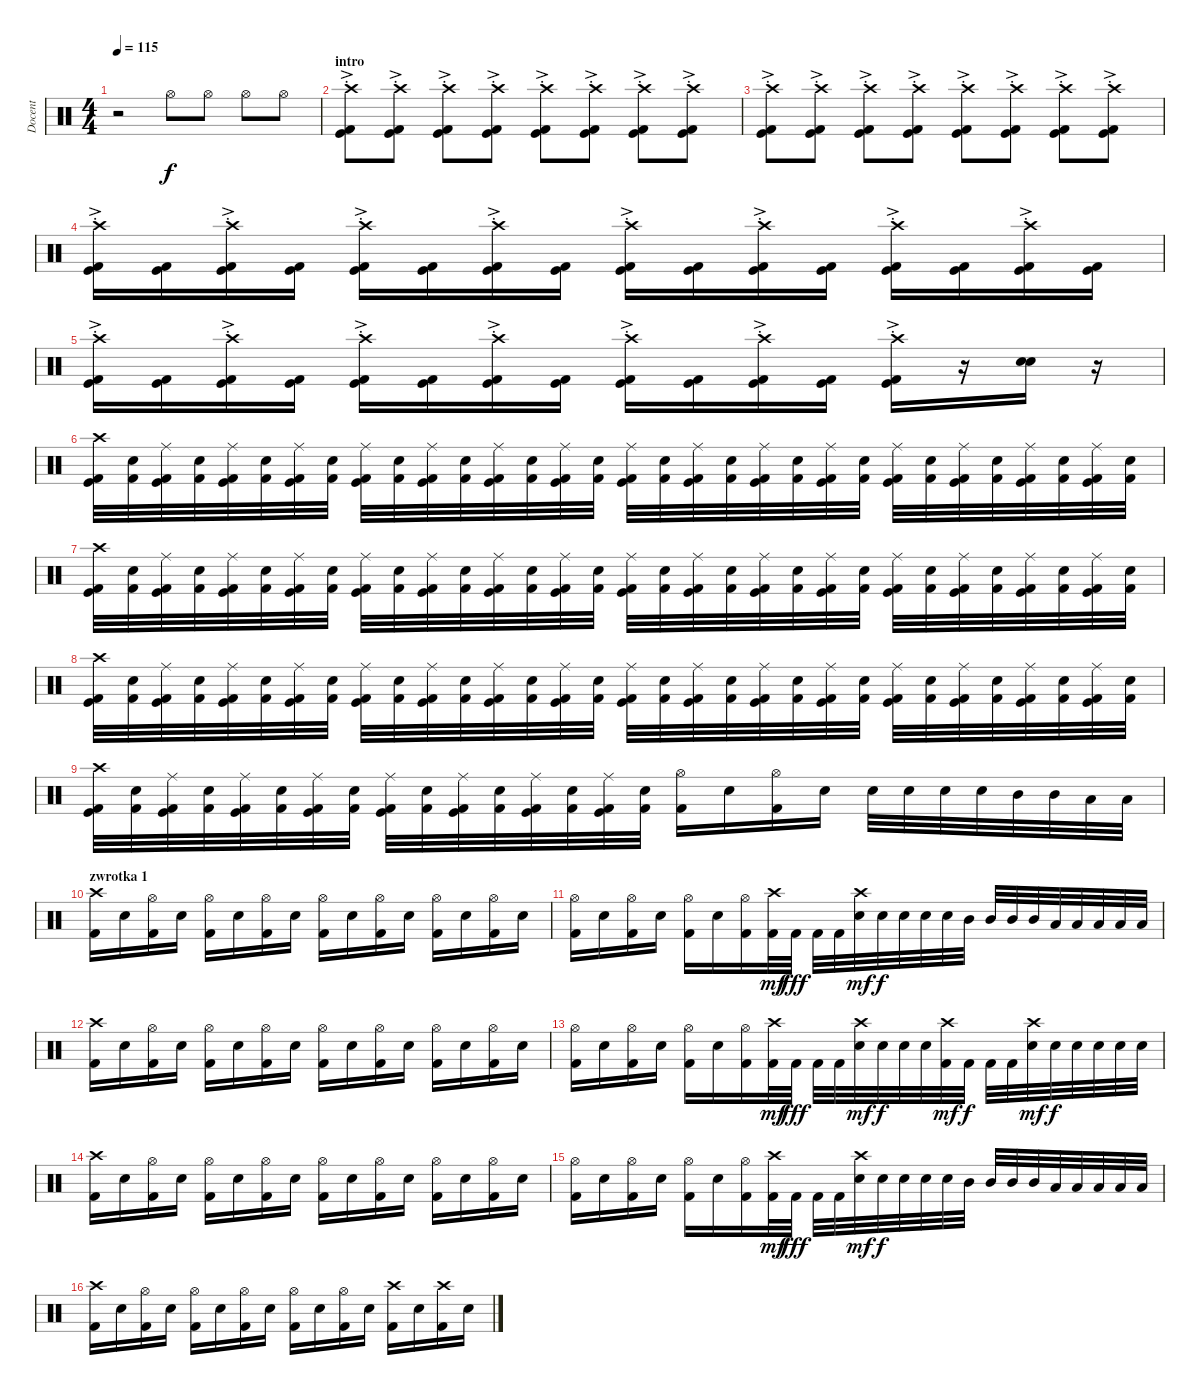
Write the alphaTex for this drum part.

\track ("Docent" "Docent") {instrument percussion}
\staff {score}
\articulation defaults
\ts (4 4)
\tempo 115
\clef neutral
\ks c
r.2{dy f} "Hi-Hat (open)".8 "Hi-Hat (open)".8 "Hi-Hat (open)".8 "Hi-Hat (open)".8 |
\section ("" "intro")
("Kick (hit) 2" "Kick (hit)" "Crash high (hit)"{ac st}).8 ("Kick (hit) 2" "Kick (hit)" "Crash high (hit)"{ac st}).8 ("Kick (hit) 2" "Kick (hit)" "Crash high (hit)"{ac st}).8 ("Kick (hit) 2" "Kick (hit)" "Crash high (hit)"{ac st}).8 ("Kick (hit) 2" "Kick (hit)" "Crash high (hit)"{ac st}).8 ("Kick (hit) 2" "Kick (hit)" "Crash high (hit)"{ac st}).8 ("Kick (hit) 2" "Kick (hit)" "Crash high (hit)"{ac st}).8 ("Kick (hit) 2" "Kick (hit)" "Crash high (hit)"{ac st}).8 |
("Kick (hit) 2" "Kick (hit)" "Crash high (hit)"{ac st}).8 ("Kick (hit) 2" "Kick (hit)" "Crash high (hit)"{ac st}).8 ("Kick (hit) 2" "Kick (hit)" "Crash high (hit)"{ac st}).8 ("Kick (hit) 2" "Kick (hit)" "Crash high (hit)"{ac st}).8 ("Kick (hit) 2" "Kick (hit)" "Crash high (hit)"{ac st}).8 ("Kick (hit) 2" "Kick (hit)" "Crash high (hit)"{ac st}).8 ("Kick (hit) 2" "Kick (hit)" "Crash high (hit)"{ac st}).8 ("Kick (hit) 2" "Kick (hit)" "Crash high (hit)"{ac st}).8 |
("Kick (hit) 2" "Kick (hit)" "Crash high (hit)"{ac st}).16 ("Kick (hit) 2" "Kick (hit)").16 ("Kick (hit) 2" "Kick (hit)" "Crash high (hit)"{ac st}).16 ("Kick (hit) 2" "Kick (hit)").16 ("Kick (hit) 2" "Kick (hit)" "Crash high (hit)"{ac st}).16 ("Kick (hit) 2" "Kick (hit)").16 ("Kick (hit) 2" "Kick (hit)" "Crash high (hit)"{ac st}).16 ("Kick (hit) 2" "Kick (hit)").16 ("Kick (hit) 2" "Kick (hit)" "Crash high (hit)"{ac st}).16 ("Kick (hit) 2" "Kick (hit)").16 ("Kick (hit) 2" "Kick (hit)" "Crash high (hit)"{ac st}).16 ("Kick (hit) 2" "Kick (hit)").16 ("Kick (hit) 2" "Kick (hit)" "Crash high (hit)"{ac st}).16 ("Kick (hit) 2" "Kick (hit)").16 ("Kick (hit) 2" "Kick (hit)" "Crash high (hit)"{ac st}).16 ("Kick (hit) 2" "Kick (hit)").16 |
("Kick (hit) 2" "Kick (hit)" "Crash high (hit)"{ac st}).16 ("Kick (hit) 2" "Kick (hit)").16 ("Kick (hit) 2" "Kick (hit)" "Crash high (hit)"{ac st}).16 ("Kick (hit) 2" "Kick (hit)").16 ("Kick (hit) 2" "Kick (hit)" "Crash high (hit)"{ac st}).16 ("Kick (hit) 2" "Kick (hit)").16 ("Kick (hit) 2" "Kick (hit)" "Crash high (hit)"{ac st}).16 ("Kick (hit) 2" "Kick (hit)").16 ("Kick (hit) 2" "Kick (hit)" "Crash high (hit)"{ac st}).16 ("Kick (hit) 2" "Kick (hit)").16 ("Kick (hit) 2" "Kick (hit)" "Crash high (hit)"{ac st}).16 ("Kick (hit) 2" "Kick (hit)").16 ("Kick (hit) 2" "Kick (hit)" "Crash high (hit)"{ac st}).16 r.16 ("Snare (hit) 2" "Snare (hit) 2").16 r.16 |
("Crash high (hit)" "Kick (hit)" "Kick (hit) 2").32 ("Snare (hit) 2" "Kick (hit) 2").32 ("Ride (middle)" "Kick (hit)" "Kick (hit) 2").32 ("Snare (hit) 2" "Kick (hit) 2").32 ("Ride (middle)" "Kick (hit)" "Kick (hit) 2").32 ("Snare (hit) 2" "Kick (hit) 2").32 ("Ride (middle)" "Kick (hit)" "Kick (hit) 2").32 ("Snare (hit) 2" "Kick (hit) 2").32 ("Ride (middle)" "Kick (hit)" "Kick (hit) 2").32 ("Snare (hit) 2" "Kick (hit) 2").32 ("Ride (middle)" "Kick (hit)" "Kick (hit) 2").32 ("Snare (hit) 2" "Kick (hit) 2").32 ("Ride (middle)" "Kick (hit)" "Kick (hit) 2").32 ("Snare (hit) 2" "Kick (hit) 2").32 ("Ride (middle)" "Kick (hit)" "Kick (hit) 2").32 ("Snare (hit) 2" "Kick (hit) 2").32 ("Ride (middle)" "Kick (hit)" "Kick (hit) 2").32 ("Snare (hit) 2" "Kick (hit) 2").32 ("Ride (middle)" "Kick (hit)" "Kick (hit) 2").32 ("Snare (hit) 2" "Kick (hit) 2").32 ("Ride (middle)" "Kick (hit)" "Kick (hit) 2").32 ("Snare (hit) 2" "Kick (hit) 2").32 ("Ride (middle)" "Kick (hit)" "Kick (hit) 2").32 ("Snare (hit) 2" "Kick (hit) 2").32 ("Ride (middle)" "Kick (hit)" "Kick (hit) 2").32 ("Snare (hit) 2" "Kick (hit) 2").32 ("Ride (middle)" "Kick (hit)" "Kick (hit) 2").32 ("Snare (hit) 2" "Kick (hit) 2").32 ("Ride (middle)" "Kick (hit)" "Kick (hit) 2").32 ("Snare (hit) 2" "Kick (hit) 2").32 ("Ride (middle)" "Kick (hit)" "Kick (hit) 2").32 ("Snare (hit) 2" "Kick (hit) 2").32 |
("Crash high (hit)" "Kick (hit)" "Kick (hit) 2").32 ("Snare (hit) 2" "Kick (hit) 2").32 ("Ride (middle)" "Kick (hit)" "Kick (hit) 2").32 ("Snare (hit) 2" "Kick (hit) 2").32 ("Ride (middle)" "Kick (hit)" "Kick (hit) 2").32 ("Snare (hit) 2" "Kick (hit) 2").32 ("Ride (middle)" "Kick (hit)" "Kick (hit) 2").32 ("Snare (hit) 2" "Kick (hit) 2").32 ("Ride (middle)" "Kick (hit)" "Kick (hit) 2").32 ("Snare (hit) 2" "Kick (hit) 2").32 ("Ride (middle)" "Kick (hit)" "Kick (hit) 2").32 ("Snare (hit) 2" "Kick (hit) 2").32 ("Ride (middle)" "Kick (hit)" "Kick (hit) 2").32 ("Snare (hit) 2" "Kick (hit) 2").32 ("Ride (middle)" "Kick (hit)" "Kick (hit) 2").32 ("Snare (hit) 2" "Kick (hit) 2").32 ("Ride (middle)" "Kick (hit)" "Kick (hit) 2").32 ("Snare (hit) 2" "Kick (hit) 2").32 ("Ride (middle)" "Kick (hit)" "Kick (hit) 2").32 ("Snare (hit) 2" "Kick (hit) 2").32 ("Ride (middle)" "Kick (hit)" "Kick (hit) 2").32 ("Snare (hit) 2" "Kick (hit) 2").32 ("Ride (middle)" "Kick (hit)" "Kick (hit) 2").32 ("Snare (hit) 2" "Kick (hit) 2").32 ("Ride (middle)" "Kick (hit)" "Kick (hit) 2").32 ("Snare (hit) 2" "Kick (hit) 2").32 ("Ride (middle)" "Kick (hit)" "Kick (hit) 2").32 ("Snare (hit) 2" "Kick (hit) 2").32 ("Ride (middle)" "Kick (hit)" "Kick (hit) 2").32 ("Snare (hit) 2" "Kick (hit) 2").32 ("Ride (middle)" "Kick (hit)" "Kick (hit) 2").32 ("Snare (hit) 2" "Kick (hit) 2").32 |
("Crash high (hit)" "Kick (hit)" "Kick (hit) 2").32 ("Snare (hit) 2" "Kick (hit) 2").32 ("Ride (middle)" "Kick (hit)" "Kick (hit) 2").32 ("Snare (hit) 2" "Kick (hit) 2").32 ("Ride (middle)" "Kick (hit)" "Kick (hit) 2").32 ("Snare (hit) 2" "Kick (hit) 2").32 ("Ride (middle)" "Kick (hit)" "Kick (hit) 2").32 ("Snare (hit) 2" "Kick (hit) 2").32 ("Ride (middle)" "Kick (hit)" "Kick (hit) 2").32 ("Snare (hit) 2" "Kick (hit) 2").32 ("Ride (middle)" "Kick (hit)" "Kick (hit) 2").32 ("Snare (hit) 2" "Kick (hit) 2").32 ("Ride (middle)" "Kick (hit)" "Kick (hit) 2").32 ("Snare (hit) 2" "Kick (hit) 2").32 ("Ride (middle)" "Kick (hit)" "Kick (hit) 2").32 ("Snare (hit) 2" "Kick (hit) 2").32 ("Ride (middle)" "Kick (hit)" "Kick (hit) 2").32 ("Snare (hit) 2" "Kick (hit) 2").32 ("Ride (middle)" "Kick (hit)" "Kick (hit) 2").32 ("Snare (hit) 2" "Kick (hit) 2").32 ("Ride (middle)" "Kick (hit)" "Kick (hit) 2").32 ("Snare (hit) 2" "Kick (hit) 2").32 ("Ride (middle)" "Kick (hit)" "Kick (hit) 2").32 ("Snare (hit) 2" "Kick (hit) 2").32 ("Ride (middle)" "Kick (hit)" "Kick (hit) 2").32 ("Snare (hit) 2" "Kick (hit) 2").32 ("Ride (middle)" "Kick (hit)" "Kick (hit) 2").32 ("Snare (hit) 2" "Kick (hit) 2").32 ("Ride (middle)" "Kick (hit)" "Kick (hit) 2").32 ("Snare (hit) 2" "Kick (hit) 2").32 ("Ride (middle)" "Kick (hit)" "Kick (hit) 2").32 ("Snare (hit) 2" "Kick (hit) 2").32 |
("Crash high (hit)" "Kick (hit)" "Kick (hit) 2").32 ("Snare (hit) 2" "Kick (hit) 2").32 ("Ride (middle)" "Kick (hit)" "Kick (hit) 2").32 ("Snare (hit) 2" "Kick (hit) 2").32 ("Ride (middle)" "Kick (hit)" "Kick (hit) 2").32 ("Snare (hit) 2" "Kick (hit) 2").32 ("Ride (middle)" "Kick (hit)" "Kick (hit) 2").32 ("Snare (hit) 2" "Kick (hit) 2").32 ("Ride (middle)" "Kick (hit)" "Kick (hit) 2").32 ("Snare (hit) 2" "Kick (hit) 2").32 ("Ride (middle)" "Kick (hit)" "Kick (hit) 2").32 ("Snare (hit) 2" "Kick (hit) 2").32 ("Ride (middle)" "Kick (hit)" "Kick (hit) 2").32 ("Snare (hit) 2" "Kick (hit) 2").32 ("Ride (middle)" "Kick (hit)" "Kick (hit) 2").32 ("Snare (hit) 2" "Kick (hit) 2").32 ("Hi-Hat (open)" "Kick (hit) 2").16 "Snare (hit) 2".16 ("Hi-Hat (open)" "Kick (hit) 2").16 "Snare (hit) 2".16 "Snare (hit) 2".32 "Snare (hit) 2".32 "Snare (hit) 2".32 "Snare (hit) 2".32 "Mid Tom (hit)".32 "Mid Tom (hit)".32 "Low Tom (hit)".32 "Low Tom (hit)".32 |
\section ("" "zwrotka 1")
("Crash high (hit)" "Kick (hit) 2").16 "Snare (hit) 2".16 ("Hi-Hat (open)" "Kick (hit) 2").16 "Snare (hit) 2".16 ("Hi-Hat (open)" "Kick (hit) 2").16 "Snare (hit) 2".16 ("Hi-Hat (open)" "Kick (hit) 2").16 "Snare (hit) 2".16 ("Hi-Hat (open)" "Kick (hit) 2").16 "Snare (hit) 2".16 ("Hi-Hat (open)" "Kick (hit) 2").16 "Snare (hit) 2".16 ("Hi-Hat (open)" "Kick (hit) 2").16 "Snare (hit) 2".16 ("Hi-Hat (open)" "Kick (hit) 2").16 "Snare (hit) 2".16 |
("Hi-Hat (open)" "Kick (hit) 2").16 "Snare (hit) 2".16 ("Hi-Hat (open)" "Kick (hit) 2").16 "Snare (hit) 2".16 ("Hi-Hat (open)" "Kick (hit) 2").16 "Snare (hit) 2".16 ("Hi-Hat (open)" "Kick (hit) 2").16 ("Crash high (hit)" "Kick (hit) 2").32{dy mf} "Kick (hit) 2".32{dy fff} "Kick (hit) 2".32 "Kick (hit) 2".32 ("Crash high (hit)" "Snare (hit) 2").32{dy mf} "Snare (hit) 2".32{dy f} "Snare (hit) 2".32 "Snare (hit) 2".32 "Snare (hit) 2".32 "Mid Tom (hit)".32 "Mid Tom (hit)".32 "Mid Tom (hit)".32 "Mid Tom (hit)".32 "Low Tom (hit)".32 "Low Tom (hit)".32 "Low Tom (hit)".32 "Low Tom (hit)".32 "Low Tom (hit)".32 |
("Crash high (hit)" "Kick (hit) 2").16 "Snare (hit) 2".16 ("Hi-Hat (open)" "Kick (hit) 2").16 "Snare (hit) 2".16 ("Hi-Hat (open)" "Kick (hit) 2").16 "Snare (hit) 2".16 ("Hi-Hat (open)" "Kick (hit) 2").16 "Snare (hit) 2".16 ("Hi-Hat (open)" "Kick (hit) 2").16 "Snare (hit) 2".16 ("Hi-Hat (open)" "Kick (hit) 2").16 "Snare (hit) 2".16 ("Hi-Hat (open)" "Kick (hit) 2").16 "Snare (hit) 2".16 ("Hi-Hat (open)" "Kick (hit) 2").16 "Snare (hit) 2".16 |
("Hi-Hat (open)" "Kick (hit) 2").16 "Snare (hit) 2".16 ("Hi-Hat (open)" "Kick (hit) 2").16 "Snare (hit) 2".16 ("Hi-Hat (open)" "Kick (hit) 2").16 "Snare (hit) 2".16 ("Hi-Hat (open)" "Kick (hit) 2").16 ("Crash high (hit)" "Kick (hit) 2").32{dy mf} "Kick (hit) 2".32{dy fff} "Kick (hit) 2".32 "Kick (hit) 2".32 ("Crash high (hit)" "Snare (hit) 2").32{dy mf} "Snare (hit) 2".32{dy f} "Snare (hit) 2".32 "Snare (hit) 2".32 ("Crash high (hit)" "Kick (hit) 2").32{dy mf} "Kick (hit) 2".32{dy f} "Kick (hit) 2".32 "Kick (hit) 2".32 ("Crash high (hit)" "Snare (hit) 2").32{dy mf} "Snare (hit) 2".32{dy f} "Snare (hit) 2".32 "Snare (hit) 2".32 "Snare (hit) 2".32 "Snare (hit) 2".32 |
("Crash high (hit)" "Kick (hit) 2").16 "Snare (hit) 2".16 ("Hi-Hat (open)" "Kick (hit) 2").16 "Snare (hit) 2".16 ("Hi-Hat (open)" "Kick (hit) 2").16 "Snare (hit) 2".16 ("Hi-Hat (open)" "Kick (hit) 2").16 "Snare (hit) 2".16 ("Hi-Hat (open)" "Kick (hit) 2").16 "Snare (hit) 2".16 ("Hi-Hat (open)" "Kick (hit) 2").16 "Snare (hit) 2".16 ("Hi-Hat (open)" "Kick (hit) 2").16 "Snare (hit) 2".16 ("Hi-Hat (open)" "Kick (hit) 2").16 "Snare (hit) 2".16 |
("Hi-Hat (open)" "Kick (hit) 2").16 "Snare (hit) 2".16 ("Hi-Hat (open)" "Kick (hit) 2").16 "Snare (hit) 2".16 ("Hi-Hat (open)" "Kick (hit) 2").16 "Snare (hit) 2".16 ("Hi-Hat (open)" "Kick (hit) 2").16 ("Crash high (hit)" "Kick (hit) 2").32{dy mf} "Kick (hit) 2".32{dy fff} "Kick (hit) 2".32 "Kick (hit) 2".32 ("Crash high (hit)" "Snare (hit) 2").32{dy mf} "Snare (hit) 2".32{dy f} "Snare (hit) 2".32 "Snare (hit) 2".32 "Snare (hit) 2".32 "Mid Tom (hit)".32 "Mid Tom (hit)".32 "Mid Tom (hit)".32 "Mid Tom (hit)".32 "Low Tom (hit)".32 "Low Tom (hit)".32 "Low Tom (hit)".32 "Low Tom (hit)".32 "Low Tom (hit)".32 |
("Crash high (hit)" "Kick (hit) 2").16 "Snare (hit) 2".16 ("Hi-Hat (open)" "Kick (hit) 2").16 "Snare (hit) 2".16 ("Hi-Hat (open)" "Kick (hit) 2").16 "Snare (hit) 2".16 ("Hi-Hat (open)" "Kick (hit) 2").16 "Snare (hit) 2".16 ("Hi-Hat (open)" "Kick (hit) 2").16 "Snare (hit) 2".16 ("Hi-Hat (open)" "Kick (hit) 2").16 "Snare (hit) 2".16 ("Crash high (hit)" "Kick (hit) 2").16 "Snare (hit) 2".16 ("Crash high (hit)" "Kick (hit) 2").16 "Snare (hit) 2".16
